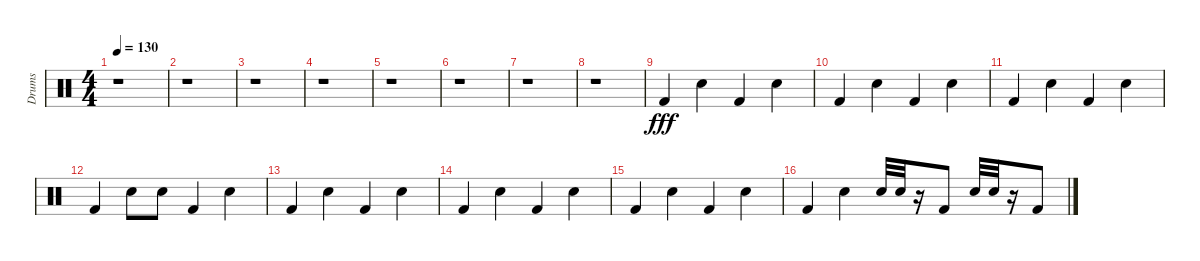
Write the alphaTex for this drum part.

\track ("Drums" "Drums") {instrument percussion}
\staff {score}
\articulation defaults
\ts (4 4)
\tempo 130
\clef neutral
\ks c
r.1{dy fff} |
r.1 |
r.1 |
r.1 |
r.1 |
r.1 |
r.1 |
r.1 |
"Kick (hit) 2".4 "Snare (hit) 2".4 "Kick (hit) 2".4 "Snare (hit) 2".4 |
"Kick (hit) 2".4 "Snare (hit) 2".4 "Kick (hit) 2".4 "Snare (hit) 2".4 |
"Kick (hit) 2".4 "Snare (hit) 2".4 "Kick (hit) 2".4 "Snare (hit) 2".4 |
"Kick (hit) 2".4 "Snare (hit) 2".8 "Snare (hit) 2".8 "Kick (hit) 2".4 "Snare (hit) 2".4 |
"Kick (hit) 2".4 "Snare (hit) 2".4 "Kick (hit) 2".4 "Snare (hit) 2".4 |
"Kick (hit) 2".4 "Snare (hit) 2".4 "Kick (hit) 2".4 "Snare (hit) 2".4 |
"Kick (hit) 2".4 "Snare (hit) 2".4 "Kick (hit) 2".4 "Snare (hit) 2".4 |
"Kick (hit) 2".4 "Snare (hit) 2".4 "Snare (hit) 2".32 "Snare (hit) 2".32 r.16 "Kick (hit) 2".8 "Snare (hit) 2".32 "Snare (hit) 2".32 r.16 "Kick (hit) 2".8
